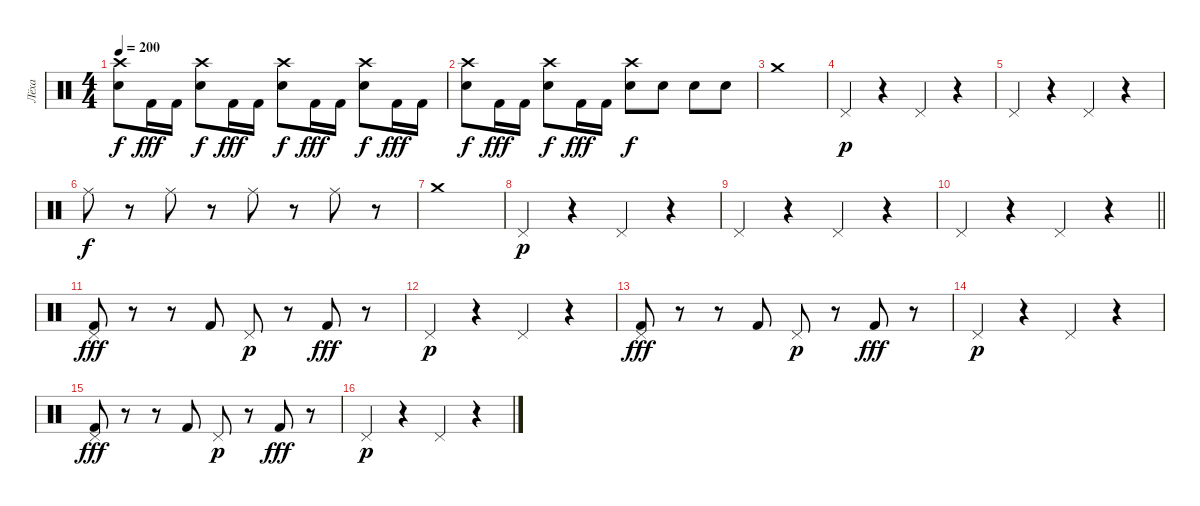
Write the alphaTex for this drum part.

\track ("Лёха" "Лёха") {instrument percussion}
\staff {score}
\articulation defaults
\ts (4 4)
\tempo 200
\clef neutral
\ks c
("Crash high (hit)" "Electric Snare (hit)").8{dy f} "Kick (hit) 2".16{dy fff} "Kick (hit) 2".16 ("Crash high (hit)" "Electric Snare (hit)").8{dy f} "Kick (hit) 2".16{dy fff} "Kick (hit) 2".16 ("Crash high (hit)" "Electric Snare (hit)").8{dy f} "Kick (hit) 2".16{dy fff} "Kick (hit) 2".16 ("Crash high (hit)" "Electric Snare (hit)").8{dy f} "Kick (hit) 2".16{dy fff} "Kick (hit) 2".16 |
("Crash high (hit)" "Electric Snare (hit)").8{dy f} "Kick (hit) 2".16{dy fff} "Kick (hit) 2".16 ("Crash high (hit)" "Electric Snare (hit)").8{dy f} "Kick (hit) 2".16{dy fff} "Kick (hit) 2".16 ("Crash high (hit)" "Electric Snare (hit)").8{dy f} "Electric Snare (hit)".8 "Electric Snare (hit)".8 "Electric Snare (hit)".8 |
"Crash medium (hit)".1 |
"Pedal Hi-Hat (hit)".4{dy p} r.4 "Pedal Hi-Hat (hit)".4 r.4 |
"Pedal Hi-Hat (hit)".4 r.4 "Pedal Hi-Hat (hit)".4 r.4 |
"Ride (middle)".8{dy f} r.8 "Ride (middle)".8 r.8 "Ride (middle)".8 r.8 "Ride (middle)".8 r.8 |
"Crash medium (hit)".1 |
"Pedal Hi-Hat (hit)".4{dy p} r.4 "Pedal Hi-Hat (hit)".4 r.4 |
"Pedal Hi-Hat (hit)".4 r.4 "Pedal Hi-Hat (hit)".4 r.4 |
\barLineRight lightlight "Pedal Hi-Hat (hit)".4
r.4 "Pedal Hi-Hat (hit)".4 r.4 |
("Pedal Hi-Hat (hit)" "Kick (hit) 2").8{dy fff} r.8 r.8 "Kick (hit) 2".8 "Pedal Hi-Hat (hit)".8{dy p} r.8 "Kick (hit) 2".8{dy fff} r.8 |
"Pedal Hi-Hat (hit)".4{dy p} r.4 "Pedal Hi-Hat (hit)".4 r.4 |
("Pedal Hi-Hat (hit)" "Kick (hit) 2").8{dy fff} r.8 r.8 "Kick (hit) 2".8 "Pedal Hi-Hat (hit)".8{dy p} r.8 "Kick (hit) 2".8{dy fff} r.8 |
"Pedal Hi-Hat (hit)".4{dy p} r.4 "Pedal Hi-Hat (hit)".4 r.4 |
("Pedal Hi-Hat (hit)" "Kick (hit) 2").8{dy fff} r.8 r.8 "Kick (hit) 2".8 "Pedal Hi-Hat (hit)".8{dy p} r.8 "Kick (hit) 2".8{dy fff} r.8 |
"Pedal Hi-Hat (hit)".4{dy p} r.4 "Pedal Hi-Hat (hit)".4 r.4
